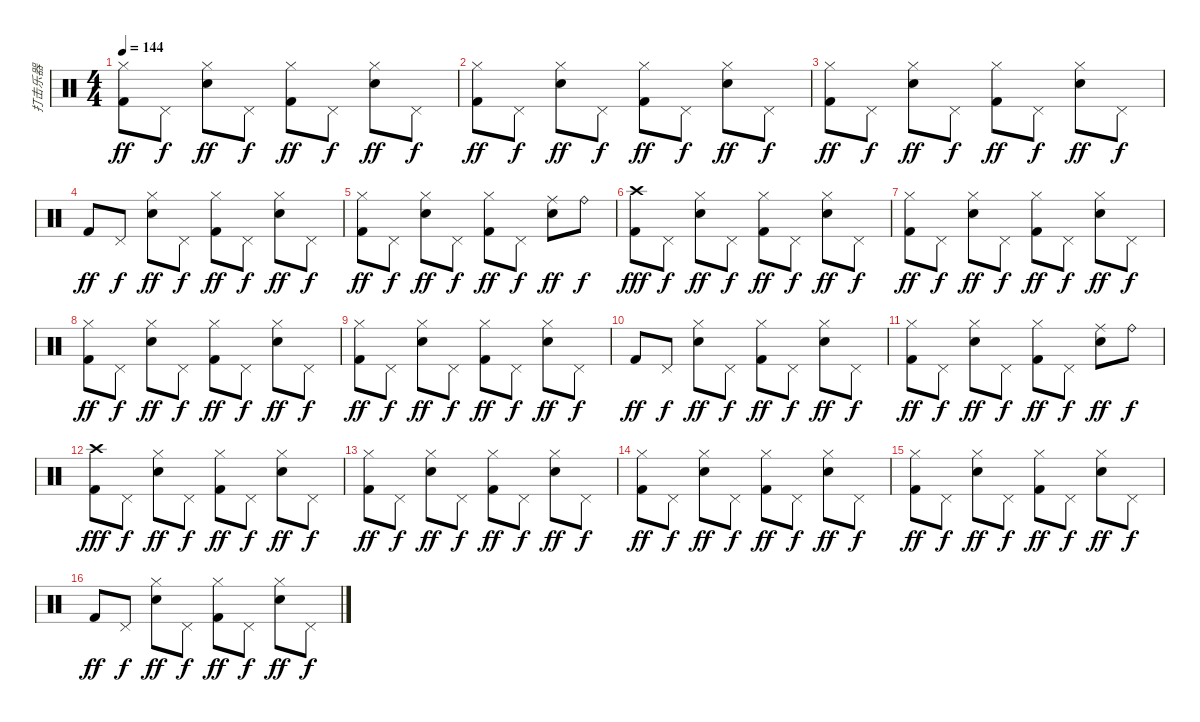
\track ("打击乐器" "打击乐器") {instrument percussion}
\staff {score}
\articulation defaults
\ts (4 4)
\tempo 144
\clef neutral
\ks c
("Kick (hit) 2" "Hi-Hat (closed)").8{dy ff} "Pedal Hi-Hat (hit)".8{dy f} ("Snare (hit) 2" "Hi-Hat (closed)").8{dy ff} "Pedal Hi-Hat (hit)".8{dy f} ("Kick (hit) 2" "Hi-Hat (closed)").8{dy ff} "Pedal Hi-Hat (hit)".8{dy f} ("Snare (hit) 2" "Hi-Hat (closed)").8{dy ff} "Pedal Hi-Hat (hit)".8{dy f} |
("Kick (hit) 2" "Hi-Hat (closed)").8{dy ff} "Pedal Hi-Hat (hit)".8{dy f} ("Snare (hit) 2" "Hi-Hat (closed)").8{dy ff} "Pedal Hi-Hat (hit)".8{dy f} ("Kick (hit) 2" "Hi-Hat (closed)").8{dy ff} "Pedal Hi-Hat (hit)".8{dy f} ("Snare (hit) 2" "Hi-Hat (closed)").8{dy ff} "Pedal Hi-Hat (hit)".8{dy f} |
("Kick (hit) 2" "Hi-Hat (closed)").8{dy ff} "Pedal Hi-Hat (hit)".8{dy f} ("Snare (hit) 2" "Hi-Hat (closed)").8{dy ff} "Pedal Hi-Hat (hit)".8{dy f} ("Kick (hit) 2" "Hi-Hat (closed)").8{dy ff} "Pedal Hi-Hat (hit)".8{dy f} ("Snare (hit) 2" "Hi-Hat (closed)").8{dy ff} "Pedal Hi-Hat (hit)".8{dy f} |
"Kick (hit) 2".8{dy ff} "Pedal Hi-Hat (hit)".8{dy f} ("Snare (hit) 2" "Hi-Hat (closed)").8{dy ff} "Pedal Hi-Hat (hit)".8{dy f} ("Kick (hit) 2" "Hi-Hat (closed)").8{dy ff} "Pedal Hi-Hat (hit)".8{dy f} ("Snare (hit) 2" "Hi-Hat (closed)").8{dy ff} "Pedal Hi-Hat (hit)".8{dy f} |
("Kick (hit) 2" "Hi-Hat (closed)").8{dy ff} "Pedal Hi-Hat (hit)".8{dy f} ("Snare (hit) 2" "Hi-Hat (closed)").8{dy ff} "Pedal Hi-Hat (hit)".8{dy f} ("Kick (hit) 2" "Hi-Hat (closed)").8{dy ff} "Pedal Hi-Hat (hit)".8{dy f} ("Snare (hit) 2" "Ride (middle)").8{dy ff} "Ride (bell)".8{dy f} |
("Kick (hit) 2" "Crash high (hit)").8{dy fff} "Pedal Hi-Hat (hit)".8{dy f} ("Snare (hit) 2" "Hi-Hat (closed)").8{dy ff} "Pedal Hi-Hat (hit)".8{dy f} ("Kick (hit) 2" "Hi-Hat (closed)").8{dy ff} "Pedal Hi-Hat (hit)".8{dy f} ("Snare (hit) 2" "Hi-Hat (closed)").8{dy ff} "Pedal Hi-Hat (hit)".8{dy f} |
("Kick (hit) 2" "Hi-Hat (closed)").8{dy ff} "Pedal Hi-Hat (hit)".8{dy f} ("Snare (hit) 2" "Hi-Hat (closed)").8{dy ff} "Pedal Hi-Hat (hit)".8{dy f} ("Kick (hit) 2" "Hi-Hat (closed)").8{dy ff} "Pedal Hi-Hat (hit)".8{dy f} ("Snare (hit) 2" "Hi-Hat (closed)").8{dy ff} "Pedal Hi-Hat (hit)".8{dy f} |
("Kick (hit) 2" "Hi-Hat (closed)").8{dy ff} "Pedal Hi-Hat (hit)".8{dy f} ("Snare (hit) 2" "Hi-Hat (closed)").8{dy ff} "Pedal Hi-Hat (hit)".8{dy f} ("Kick (hit) 2" "Hi-Hat (closed)").8{dy ff} "Pedal Hi-Hat (hit)".8{dy f} ("Snare (hit) 2" "Hi-Hat (closed)").8{dy ff} "Pedal Hi-Hat (hit)".8{dy f} |
("Kick (hit) 2" "Hi-Hat (closed)").8{dy ff} "Pedal Hi-Hat (hit)".8{dy f} ("Snare (hit) 2" "Hi-Hat (closed)").8{dy ff} "Pedal Hi-Hat (hit)".8{dy f} ("Kick (hit) 2" "Hi-Hat (closed)").8{dy ff} "Pedal Hi-Hat (hit)".8{dy f} ("Snare (hit) 2" "Hi-Hat (closed)").8{dy ff} "Pedal Hi-Hat (hit)".8{dy f} |
"Kick (hit) 2".8{dy ff} "Pedal Hi-Hat (hit)".8{dy f} ("Snare (hit) 2" "Hi-Hat (closed)").8{dy ff} "Pedal Hi-Hat (hit)".8{dy f} ("Kick (hit) 2" "Hi-Hat (closed)").8{dy ff} "Pedal Hi-Hat (hit)".8{dy f} ("Snare (hit) 2" "Hi-Hat (closed)").8{dy ff} "Pedal Hi-Hat (hit)".8{dy f} |
("Kick (hit) 2" "Hi-Hat (closed)").8{dy ff} "Pedal Hi-Hat (hit)".8{dy f} ("Snare (hit) 2" "Hi-Hat (closed)").8{dy ff} "Pedal Hi-Hat (hit)".8{dy f} ("Kick (hit) 2" "Hi-Hat (closed)").8{dy ff} "Pedal Hi-Hat (hit)".8{dy f} ("Snare (hit) 2" "Ride (middle)").8{dy ff} "Ride (bell)".8{dy f} |
("Kick (hit) 2" "Crash high (hit)").8{dy fff} "Pedal Hi-Hat (hit)".8{dy f} ("Snare (hit) 2" "Hi-Hat (closed)").8{dy ff} "Pedal Hi-Hat (hit)".8{dy f} ("Kick (hit) 2" "Hi-Hat (closed)").8{dy ff} "Pedal Hi-Hat (hit)".8{dy f} ("Snare (hit) 2" "Hi-Hat (closed)").8{dy ff} "Pedal Hi-Hat (hit)".8{dy f} |
("Kick (hit) 2" "Hi-Hat (closed)").8{dy ff} "Pedal Hi-Hat (hit)".8{dy f} ("Snare (hit) 2" "Hi-Hat (closed)").8{dy ff} "Pedal Hi-Hat (hit)".8{dy f} ("Kick (hit) 2" "Hi-Hat (closed)").8{dy ff} "Pedal Hi-Hat (hit)".8{dy f} ("Snare (hit) 2" "Hi-Hat (closed)").8{dy ff} "Pedal Hi-Hat (hit)".8{dy f} |
("Kick (hit) 2" "Hi-Hat (closed)").8{dy ff} "Pedal Hi-Hat (hit)".8{dy f} ("Snare (hit) 2" "Hi-Hat (closed)").8{dy ff} "Pedal Hi-Hat (hit)".8{dy f} ("Kick (hit) 2" "Hi-Hat (closed)").8{dy ff} "Pedal Hi-Hat (hit)".8{dy f} ("Snare (hit) 2" "Hi-Hat (closed)").8{dy ff} "Pedal Hi-Hat (hit)".8{dy f} |
("Kick (hit) 2" "Hi-Hat (closed)").8{dy ff} "Pedal Hi-Hat (hit)".8{dy f} ("Snare (hit) 2" "Hi-Hat (closed)").8{dy ff} "Pedal Hi-Hat (hit)".8{dy f} ("Kick (hit) 2" "Hi-Hat (closed)").8{dy ff} "Pedal Hi-Hat (hit)".8{dy f} ("Snare (hit) 2" "Hi-Hat (closed)").8{dy ff} "Pedal Hi-Hat (hit)".8{dy f} |
"Kick (hit) 2".8{dy ff} "Pedal Hi-Hat (hit)".8{dy f} ("Snare (hit) 2" "Hi-Hat (closed)").8{dy ff} "Pedal Hi-Hat (hit)".8{dy f} ("Kick (hit) 2" "Hi-Hat (closed)").8{dy ff} "Pedal Hi-Hat (hit)".8{dy f} ("Snare (hit) 2" "Hi-Hat (closed)").8{dy ff} "Pedal Hi-Hat (hit)".8{dy f}
